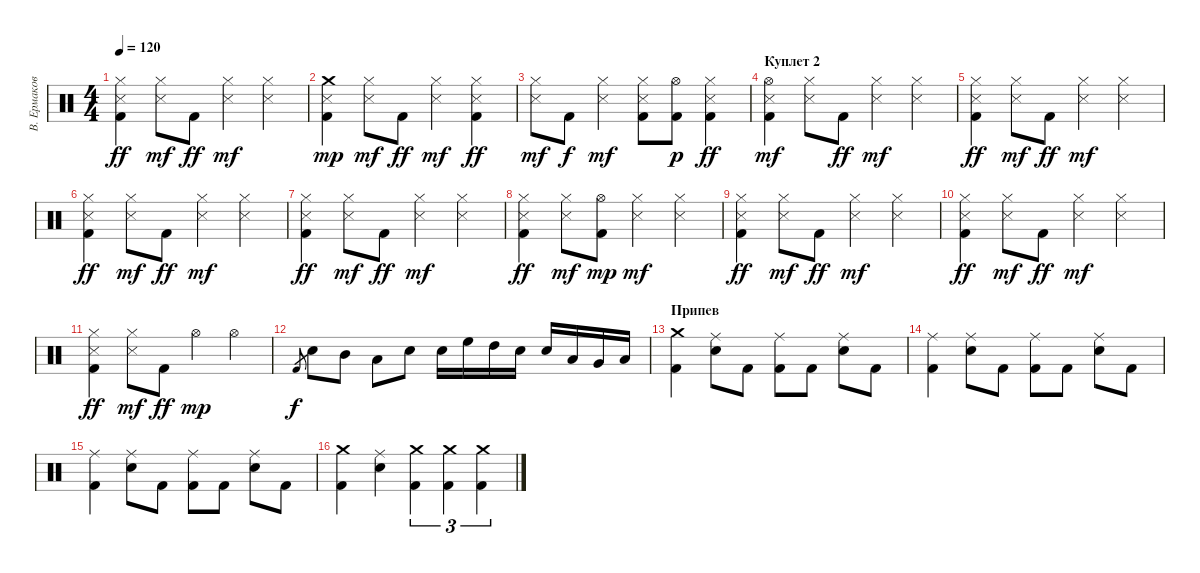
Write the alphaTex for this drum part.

\track ("В. Ермаков" "В. Ермаков") {instrument percussion}
\staff {score}
\articulation defaults
\ts (4 4)
\tempo 120
\clef neutral
\ks c
("Snare (side stick) 3" "Kick (hit) 2" "Hi-Hat (closed)").4{dy ff} ("Snare (side stick) 3" "Hi-Hat (closed)").8{dy mf} "Kick (hit) 2".8{dy ff} ("Snare (side stick) 3" "Hi-Hat (closed)").4{dy mf} ("Snare (side stick) 3" "Hi-Hat (closed)").4 |
("Snare (side stick) 3" "Kick (hit) 2" "Crash medium (hit)").4{dy mp} ("Snare (side stick) 3" "Hi-Hat (closed)").8{dy mf} "Kick (hit) 2".8{dy ff} ("Snare (side stick) 3" "Hi-Hat (closed)").4{dy mf} ("Snare (side stick) 3" "Kick (hit) 2" "Hi-Hat (closed)").4{dy ff} |
("Snare (side stick) 3" "Hi-Hat (closed)").8{dy mf} "Kick (hit) 2".8{dy f} ("Snare (side stick) 3" "Hi-Hat (closed)").4{dy mf} ("Snare (side stick) 3" "Kick (hit) 2" "Hi-Hat (closed)").8 ("Kick (hit) 2" "Hi-Hat (open)").8{dy p} ("Snare (side stick) 3" "Kick (hit) 2" "Hi-Hat (closed)").4{dy ff} |
\section ("" "Куплет 2")
("Snare (side stick) 3" "Kick (hit) 2" "Hi-Hat (open)").4{dy mf} ("Snare (side stick) 3" "Hi-Hat (closed)").8 "Kick (hit) 2".8{dy ff} ("Snare (side stick) 3" "Hi-Hat (closed)").4{dy mf} ("Snare (side stick) 3" "Hi-Hat (closed)").4 |
("Snare (side stick) 3" "Kick (hit) 2" "Hi-Hat (closed)").4{dy ff} ("Snare (side stick) 3" "Hi-Hat (closed)").8{dy mf} "Kick (hit) 2".8{dy ff} ("Snare (side stick) 3" "Hi-Hat (closed)").4{dy mf} ("Snare (side stick) 3" "Hi-Hat (closed)").4 |
("Snare (side stick) 3" "Kick (hit) 2" "Hi-Hat (closed)").4{dy ff} ("Snare (side stick) 3" "Hi-Hat (closed)").8{dy mf} "Kick (hit) 2".8{dy ff} ("Snare (side stick) 3" "Hi-Hat (closed)").4{dy mf} ("Snare (side stick) 3" "Hi-Hat (closed)").4 |
("Snare (side stick) 3" "Kick (hit) 2" "Hi-Hat (closed)").4{dy ff} ("Snare (side stick) 3" "Hi-Hat (closed)").8{dy mf} "Kick (hit) 2".8{dy ff} ("Snare (side stick) 3" "Hi-Hat (closed)").4{dy mf} ("Snare (side stick) 3" "Hi-Hat (closed)").4 |
("Snare (side stick) 3" "Kick (hit) 2" "Hi-Hat (closed)").4{dy ff} ("Snare (side stick) 3" "Hi-Hat (closed)").8{dy mf} ("Kick (hit) 2" "Hi-Hat (open)").8{dy mp} ("Snare (side stick) 3" "Hi-Hat (closed)").4{dy mf} ("Snare (side stick) 3" "Hi-Hat (closed)").4 |
("Snare (side stick) 3" "Kick (hit) 2" "Hi-Hat (closed)").4{dy ff} ("Snare (side stick) 3" "Hi-Hat (closed)").8{dy mf} "Kick (hit) 2".8{dy ff} ("Snare (side stick) 3" "Hi-Hat (closed)").4{dy mf} ("Snare (side stick) 3" "Hi-Hat (closed)").4 |
("Snare (side stick) 3" "Kick (hit) 2" "Hi-Hat (closed)").4{dy ff} ("Snare (side stick) 3" "Hi-Hat (closed)").8{dy mf} "Kick (hit) 2".8{dy ff} ("Snare (side stick) 3" "Hi-Hat (closed)").4{dy mf} ("Snare (side stick) 3" "Hi-Hat (closed)").4 |
("Snare (side stick) 3" "Kick (hit) 2" "Hi-Hat (closed)").4{dy ff} ("Snare (side stick) 3" "Hi-Hat (closed)").8{dy mf} "Kick (hit) 2".8{dy ff} "Hi-Hat (open)".4{dy mp} "Hi-Hat (open)".4 |
"Kick (hit) 2".8{gr dy f} "Electric Snare (hit)".8 "Mid Tom (hit)".8 "Low Tom (hit)".8 "Electric Snare (hit)".8 "Electric Snare (hit)".16 "High Floor Tom (hit)".16 "High Tom (hit)".16 "Electric Snare (hit)".16 "Electric Snare (hit)".16 "Low Tom (hit)".16 "Very Low Tom (hit)".16 "Low Floor Tom (hit)".16 |
\section ("" "Припев")
("Crash medium (hit)" "Kick (hit) 2").4 ("Ride (middle)" "Electric Snare (hit)").8 "Kick (hit) 2".8 ("Ride (middle)" "Kick (hit) 2").8 "Kick (hit) 2".8 ("Ride (middle)" "Electric Snare (hit)").8 "Kick (hit) 2".8 |
("Ride (middle)" "Kick (hit) 2").4 ("Ride (middle)" "Electric Snare (hit)").8 "Kick (hit) 2".8 ("Ride (middle)" "Kick (hit) 2").8 "Kick (hit) 2".8 ("Ride (middle)" "Electric Snare (hit)").8 "Kick (hit) 2".8 |
("Ride (middle)" "Kick (hit) 2").4 ("Ride (middle)" "Electric Snare (hit)").8 "Kick (hit) 2".8 ("Ride (middle)" "Kick (hit) 2").8 "Kick (hit) 2".8 ("Ride (middle)" "Electric Snare (hit)").8 "Kick (hit) 2".8 |
("Crash medium (hit)" "Kick (hit) 2").4 ("Ride (middle)" "Electric Snare (hit)").4 ("Crash medium (hit)" "Kick (hit) 2").4{tu (3 2)} ("Crash medium (hit)" "Kick (hit) 2").4{tu (3 2)} ("Crash medium (hit)" "Kick (hit) 2").4{tu (3 2)}
